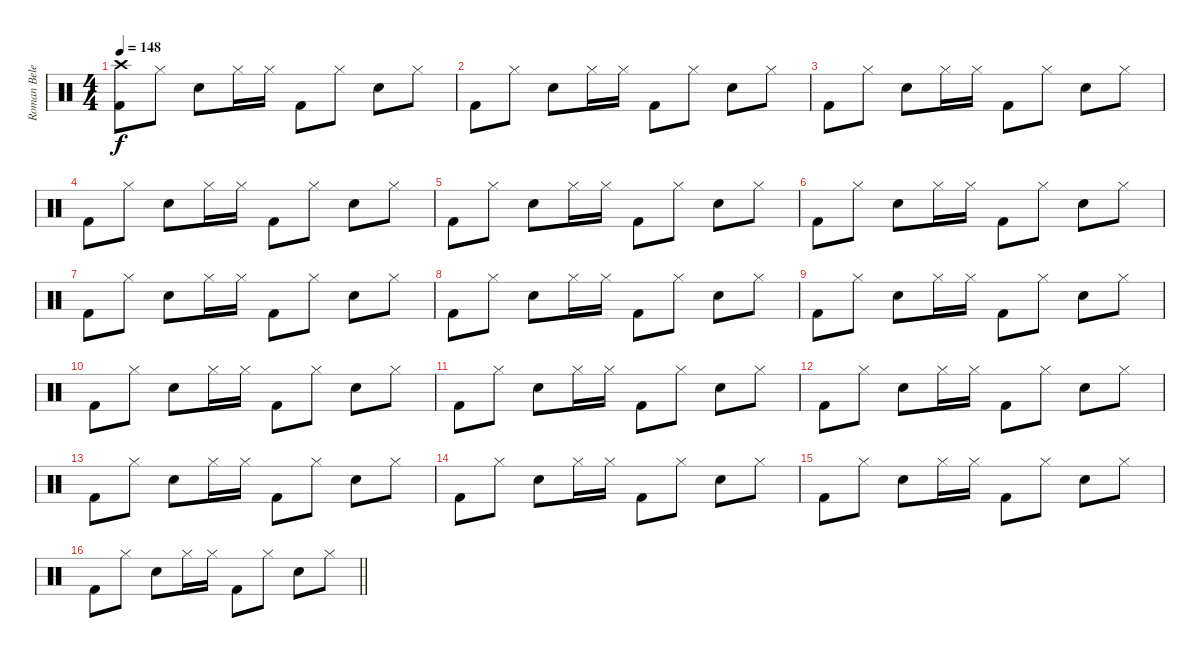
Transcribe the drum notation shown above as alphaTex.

\track ("Roman Belenkiy" "Roman Bele") {instrument percussion}
\staff {score}
\articulation defaults
\ts (4 4)
\section ("" "")
\tempo 148
\clef neutral
\ks c
("Crash high (hit)" "Kick (hit) 2").8{dy f} "Hi-Hat (closed)".8 "Snare (hit) 2".8 "Hi-Hat (closed)".16 "Hi-Hat (closed)".16 "Kick (hit) 2".8 "Hi-Hat (closed)".8 "Snare (hit) 2".8 "Hi-Hat (closed)".8 |
"Kick (hit) 2".8 "Hi-Hat (closed)".8 "Snare (hit) 2".8 "Hi-Hat (closed)".16 "Hi-Hat (closed)".16 "Kick (hit) 2".8 "Hi-Hat (closed)".8 "Snare (hit) 2".8 "Hi-Hat (closed)".8 |
"Kick (hit) 2".8 "Hi-Hat (closed)".8 "Snare (hit) 2".8 "Hi-Hat (closed)".16 "Hi-Hat (closed)".16 "Kick (hit) 2".8 "Hi-Hat (closed)".8 "Snare (hit) 2".8 "Hi-Hat (closed)".8 |
"Kick (hit) 2".8 "Hi-Hat (closed)".8 "Snare (hit) 2".8 "Hi-Hat (closed)".16 "Hi-Hat (closed)".16 "Kick (hit) 2".8 "Hi-Hat (closed)".8 "Snare (hit) 2".8 "Hi-Hat (closed)".8 |
"Kick (hit) 2".8 "Hi-Hat (closed)".8 "Snare (hit) 2".8 "Hi-Hat (closed)".16 "Hi-Hat (closed)".16 "Kick (hit) 2".8 "Hi-Hat (closed)".8 "Snare (hit) 2".8 "Hi-Hat (closed)".8 |
"Kick (hit) 2".8 "Hi-Hat (closed)".8 "Snare (hit) 2".8 "Hi-Hat (closed)".16 "Hi-Hat (closed)".16 "Kick (hit) 2".8 "Hi-Hat (closed)".8 "Snare (hit) 2".8 "Hi-Hat (closed)".8 |
"Kick (hit) 2".8 "Hi-Hat (closed)".8 "Snare (hit) 2".8 "Hi-Hat (closed)".16 "Hi-Hat (closed)".16 "Kick (hit) 2".8 "Hi-Hat (closed)".8 "Snare (hit) 2".8 "Hi-Hat (closed)".8 |
"Kick (hit) 2".8 "Hi-Hat (closed)".8 "Snare (hit) 2".8 "Hi-Hat (closed)".16 "Hi-Hat (closed)".16 "Kick (hit) 2".8 "Hi-Hat (closed)".8 "Snare (hit) 2".8 "Hi-Hat (closed)".8 |
"Kick (hit) 2".8 "Hi-Hat (closed)".8 "Snare (hit) 2".8 "Hi-Hat (closed)".16 "Hi-Hat (closed)".16 "Kick (hit) 2".8 "Hi-Hat (closed)".8 "Snare (hit) 2".8 "Hi-Hat (closed)".8 |
"Kick (hit) 2".8 "Hi-Hat (closed)".8 "Snare (hit) 2".8 "Hi-Hat (closed)".16 "Hi-Hat (closed)".16 "Kick (hit) 2".8 "Hi-Hat (closed)".8 "Snare (hit) 2".8 "Hi-Hat (closed)".8 |
"Kick (hit) 2".8 "Hi-Hat (closed)".8 "Snare (hit) 2".8 "Hi-Hat (closed)".16 "Hi-Hat (closed)".16 "Kick (hit) 2".8 "Hi-Hat (closed)".8 "Snare (hit) 2".8 "Hi-Hat (closed)".8 |
"Kick (hit) 2".8 "Hi-Hat (closed)".8 "Snare (hit) 2".8 "Hi-Hat (closed)".16 "Hi-Hat (closed)".16 "Kick (hit) 2".8 "Hi-Hat (closed)".8 "Snare (hit) 2".8 "Hi-Hat (closed)".8 |
"Kick (hit) 2".8 "Hi-Hat (closed)".8 "Snare (hit) 2".8 "Hi-Hat (closed)".16 "Hi-Hat (closed)".16 "Kick (hit) 2".8 "Hi-Hat (closed)".8 "Snare (hit) 2".8 "Hi-Hat (closed)".8 |
"Kick (hit) 2".8 "Hi-Hat (closed)".8 "Snare (hit) 2".8 "Hi-Hat (closed)".16 "Hi-Hat (closed)".16 "Kick (hit) 2".8 "Hi-Hat (closed)".8 "Snare (hit) 2".8 "Hi-Hat (closed)".8 |
"Kick (hit) 2".8 "Hi-Hat (closed)".8 "Snare (hit) 2".8 "Hi-Hat (closed)".16 "Hi-Hat (closed)".16 "Kick (hit) 2".8 "Hi-Hat (closed)".8 "Snare (hit) 2".8 "Hi-Hat (closed)".8 |
\barLineRight lightlight "Kick (hit) 2".8 "Hi-Hat (closed)".8 "Snare (hit) 2".8 "Hi-Hat (closed)".16 "Hi-Hat (closed)".16 "Kick (hit) 2".8 "Hi-Hat (closed)".8 "Snare (hit) 2".8 "Hi-Hat (closed)".8
